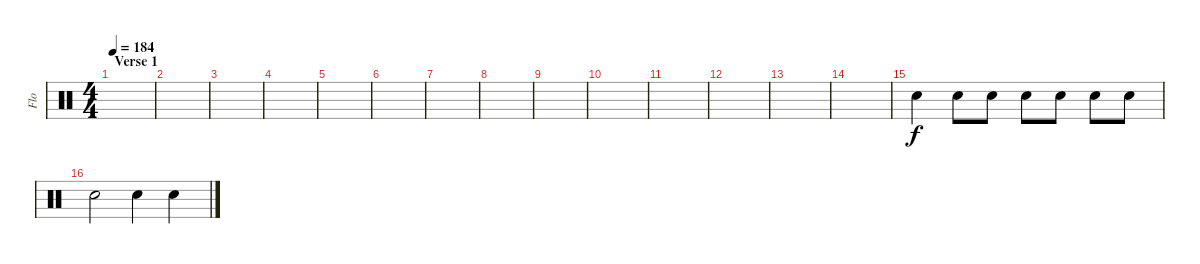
\track ("Flo" "Flo") {instrument percussion}
\staff {score}
\articulation defaults
\ts (4 4)
\section ("" "Verse 1")
\tempo 184
\clef neutral
\ks c
|
|
|
|
|
|
|
|
|
|
|
|
|
|
"Electric Snare (hit)".4 "Electric Snare (hit)".8 "Electric Snare (hit)".8 "Electric Snare (hit)".8 "Electric Snare (hit)".8 "Electric Snare (hit)".8 "Electric Snare (hit)".8 |
"Electric Snare (hit)".2 "Electric Snare (hit)".4 "Electric Snare (hit)".4
